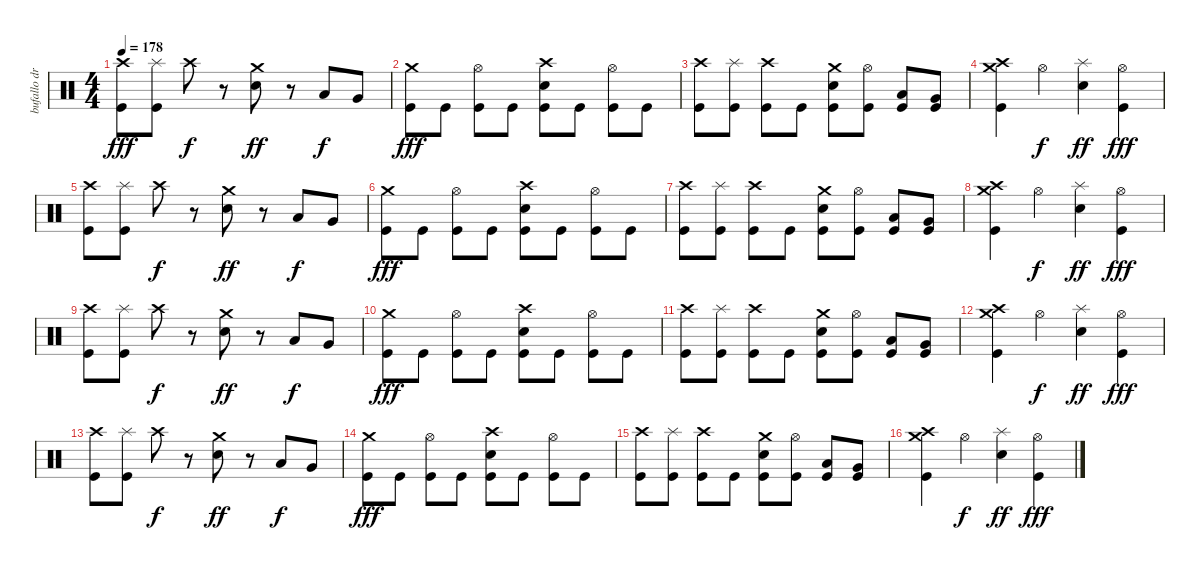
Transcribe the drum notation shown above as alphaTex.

\track ("bufallo drums" "bufallo dr") {instrument percussion}
\staff {score}
\articulation defaults
\ts (4 4)
\tempo 178
\clef neutral
\ks c
("Crash high (hit)" "Kick (hit)").8{dy fff} ("Splash (hit)" "Kick (hit)").8 "Crash high (hit)".8{dy f} r.8 ("Crash medium (hit)" "Electric Snare (hit)").8{dy ff} r.8 "Low Tom (hit)".8{dy f} "Very Low Tom (hit)".8 |
("Crash medium (hit)" "Kick (hit)").8{dy fff} "Kick (hit)".8 ("Hi-Hat (open)" "Kick (hit)").8 "Kick (hit)".8 ("Electric Snare (hit)" "Crash high (hit)" "Kick (hit)").8 "Kick (hit)".8 ("Hi-Hat (open)" "Kick (hit)").8 "Kick (hit)".8 |
("Crash high (hit)" "Kick (hit)").8 ("Splash (hit)" "Kick (hit)").8 ("Crash high (hit)" "Kick (hit)").8 "Kick (hit)".8 ("Crash medium (hit)" "Electric Snare (hit)" "Kick (hit)").8 ("Hi-Hat (open)" "Kick (hit)").8 ("Low Tom (hit)" "Kick (hit)").8 ("Very Low Tom (hit)" "Kick (hit)").8 |
("Crash medium (hit)" "Crash high (hit)" "Kick (hit)").4 "Hi-Hat (open)".4{dy f} ("Splash (hit)" "Electric Snare (hit)").4{dy ff} ("Hi-Hat (open)" "Kick (hit)").4{dy fff} |
("Crash high (hit)" "Kick (hit)").8 ("Splash (hit)" "Kick (hit)").8 "Crash high (hit)".8{dy f} r.8 ("Crash medium (hit)" "Electric Snare (hit)").8{dy ff} r.8 "Low Tom (hit)".8{dy f} "Very Low Tom (hit)".8 |
("Crash medium (hit)" "Kick (hit)").8{dy fff} "Kick (hit)".8 ("Hi-Hat (open)" "Kick (hit)").8 "Kick (hit)".8 ("Electric Snare (hit)" "Crash high (hit)" "Kick (hit)").8 "Kick (hit)".8 ("Hi-Hat (open)" "Kick (hit)").8 "Kick (hit)".8 |
("Crash high (hit)" "Kick (hit)").8 ("Splash (hit)" "Kick (hit)").8 ("Crash high (hit)" "Kick (hit)").8 "Kick (hit)".8 ("Crash medium (hit)" "Electric Snare (hit)" "Kick (hit)").8 ("Hi-Hat (open)" "Kick (hit)").8 ("Low Tom (hit)" "Kick (hit)").8 ("Very Low Tom (hit)" "Kick (hit)").8 |
("Crash medium (hit)" "Crash high (hit)" "Kick (hit)").4 "Hi-Hat (open)".4{dy f} ("Splash (hit)" "Electric Snare (hit)").4{dy ff} ("Hi-Hat (open)" "Kick (hit)").4{dy fff} |
("Crash high (hit)" "Kick (hit)").8 ("Splash (hit)" "Kick (hit)").8 "Crash high (hit)".8{dy f} r.8 ("Crash medium (hit)" "Electric Snare (hit)").8{dy ff} r.8 "Low Tom (hit)".8{dy f} "Very Low Tom (hit)".8 |
("Crash medium (hit)" "Kick (hit)").8{dy fff} "Kick (hit)".8 ("Hi-Hat (open)" "Kick (hit)").8 "Kick (hit)".8 ("Electric Snare (hit)" "Crash high (hit)" "Kick (hit)").8 "Kick (hit)".8 ("Hi-Hat (open)" "Kick (hit)").8 "Kick (hit)".8 |
("Crash high (hit)" "Kick (hit)").8 ("Splash (hit)" "Kick (hit)").8 ("Crash high (hit)" "Kick (hit)").8 "Kick (hit)".8 ("Crash medium (hit)" "Electric Snare (hit)" "Kick (hit)").8 ("Hi-Hat (open)" "Kick (hit)").8 ("Low Tom (hit)" "Kick (hit)").8 ("Very Low Tom (hit)" "Kick (hit)").8 |
("Crash medium (hit)" "Crash high (hit)" "Kick (hit)").4 "Hi-Hat (open)".4{dy f} ("Splash (hit)" "Electric Snare (hit)").4{dy ff} ("Hi-Hat (open)" "Kick (hit)").4{dy fff} |
("Crash high (hit)" "Kick (hit)").8 ("Splash (hit)" "Kick (hit)").8 "Crash high (hit)".8{dy f} r.8 ("Crash medium (hit)" "Electric Snare (hit)").8{dy ff} r.8 "Low Tom (hit)".8{dy f} "Very Low Tom (hit)".8 |
("Crash medium (hit)" "Kick (hit)").8{dy fff} "Kick (hit)".8 ("Hi-Hat (open)" "Kick (hit)").8 "Kick (hit)".8 ("Electric Snare (hit)" "Crash high (hit)" "Kick (hit)").8 "Kick (hit)".8 ("Hi-Hat (open)" "Kick (hit)").8 "Kick (hit)".8 |
("Crash high (hit)" "Kick (hit)").8 ("Splash (hit)" "Kick (hit)").8 ("Crash high (hit)" "Kick (hit)").8 "Kick (hit)".8 ("Crash medium (hit)" "Electric Snare (hit)" "Kick (hit)").8 ("Hi-Hat (open)" "Kick (hit)").8 ("Low Tom (hit)" "Kick (hit)").8 ("Very Low Tom (hit)" "Kick (hit)").8 |
("Crash medium (hit)" "Crash high (hit)" "Kick (hit)").4 "Hi-Hat (open)".4{dy f} ("Splash (hit)" "Electric Snare (hit)").4{dy ff} ("Hi-Hat (open)" "Kick (hit)").4{dy fff}
